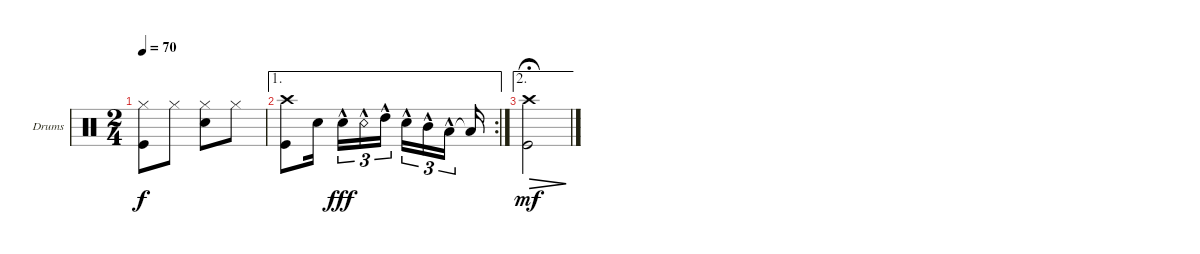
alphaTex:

\defaultSystemsLayout 4
\bracketExtendMode groupsimilarinstruments
\firstSystemTrackNameOrientation horizontal
\otherSystemsTrackNameOrientation horizontal
\track ("Drumkit" "Drums") {instrument percussion}
\staff {score}
\articulation defaults
\ts (2 4)
\tempo 70
\clef neutral
\ks c
("Kick (hit)" "Hi-Hat (closed)").8{dy f} "Hi-Hat (closed)".8 ("Hi-Hat (closed)" "Snare (hit) 2").8 "Hi-Hat (closed)".8 |
\ae 1
\rc 2
("Kick (hit)" "Crash high (hit)").8 "Snare (hit) 2".16 "Snare (hit) 2"{hac}.16{tu (3 2) dy fff} "Snare (rim shot)"{hac}.16{tu (3 2)} "High Tom (hit)"{hac}.16{tu (3 2)} "Snare (hit) 2"{hac}.16{tu (3 2)} "Mid Tom (hit)"{hac}.16{tu (3 2)} "Low Tom (hit)"{hac}.16{tu (3 2)} "Low Tom (hit)"{t}.16 |
\ae 2
("Kick (hit)" "Crash high (hit)").2{dec dy mf fermata (medium 0.04)}
